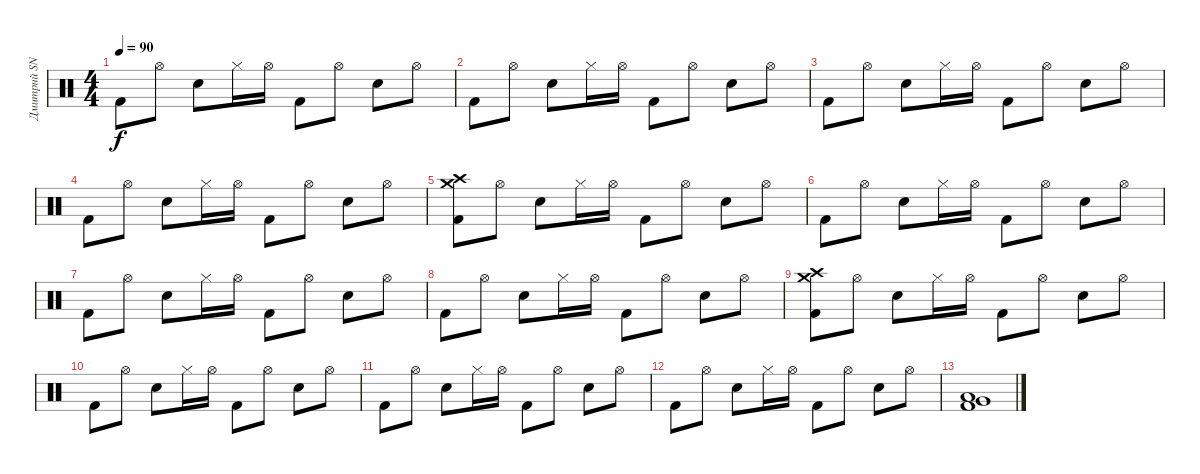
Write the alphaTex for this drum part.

\track ("Дмитрий SNAKE Хакимов" "Дмитрий SN") {instrument percussion}
\staff {score}
\articulation defaults
\ts (4 4)
\tempo 90
\clef neutral
\ks c "Kick (hit) 2".8{dy f} "Hi-Hat (open)".8 "Snare (hit) 2".8 "Hi-Hat (closed)".16 "Hi-Hat (open)".16 "Kick (hit) 2".8 "Hi-Hat (open)".8 "Snare (hit) 2".8 "Hi-Hat (open)".8
|
"Kick (hit) 2".8 "Hi-Hat (open)".8 "Snare (hit) 2".8 "Hi-Hat (closed)".16 "Hi-Hat (open)".16 "Kick (hit) 2".8 "Hi-Hat (open)".8 "Snare (hit) 2".8 "Hi-Hat (open)".8 |
"Kick (hit) 2".8 "Hi-Hat (open)".8 "Snare (hit) 2".8 "Hi-Hat (closed)".16 "Hi-Hat (open)".16 "Kick (hit) 2".8 "Hi-Hat (open)".8 "Snare (hit) 2".8 "Hi-Hat (open)".8 |
"Kick (hit) 2".8 "Hi-Hat (open)".8 "Snare (hit) 2".8 "Hi-Hat (closed)".16 "Hi-Hat (open)".16 "Kick (hit) 2".8 "Hi-Hat (open)".8 "Snare (hit) 2".8 "Hi-Hat (open)".8 |
("Crash high (hit)" "Crash medium (hit)" "Kick (hit) 2").8 "Hi-Hat (open)".8 "Snare (hit) 2".8 "Hi-Hat (closed)".16 "Hi-Hat (open)".16 "Kick (hit) 2".8 "Hi-Hat (open)".8 "Snare (hit) 2".8 "Hi-Hat (open)".8 |
"Kick (hit) 2".8 "Hi-Hat (open)".8 "Snare (hit) 2".8 "Hi-Hat (closed)".16 "Hi-Hat (open)".16 "Kick (hit) 2".8 "Hi-Hat (open)".8 "Snare (hit) 2".8 "Hi-Hat (open)".8 |
"Kick (hit) 2".8 "Hi-Hat (open)".8 "Snare (hit) 2".8 "Hi-Hat (closed)".16 "Hi-Hat (open)".16 "Kick (hit) 2".8 "Hi-Hat (open)".8 "Snare (hit) 2".8 "Hi-Hat (open)".8 |
"Kick (hit) 2".8 "Hi-Hat (open)".8 "Snare (hit) 2".8 "Hi-Hat (closed)".16 "Hi-Hat (open)".16 "Kick (hit) 2".8 "Hi-Hat (open)".8 "Snare (hit) 2".8 "Hi-Hat (open)".8 |
("Crash high (hit)" "Crash medium (hit)" "Kick (hit) 2").8 "Hi-Hat (open)".8 "Snare (hit) 2".8 "Hi-Hat (closed)".16 "Hi-Hat (open)".16 "Kick (hit) 2".8 "Hi-Hat (open)".8 "Snare (hit) 2".8 "Hi-Hat (open)".8 |
"Kick (hit) 2".8 "Hi-Hat (open)".8 "Snare (hit) 2".8 "Hi-Hat (closed)".16 "Hi-Hat (open)".16 "Kick (hit) 2".8 "Hi-Hat (open)".8 "Snare (hit) 2".8 "Hi-Hat (open)".8 |
"Kick (hit) 2".8 "Hi-Hat (open)".8 "Snare (hit) 2".8 "Hi-Hat (closed)".16 "Hi-Hat (open)".16 "Kick (hit) 2".8 "Hi-Hat (open)".8 "Snare (hit) 2".8 "Hi-Hat (open)".8 |
"Kick (hit) 2".8 "Hi-Hat (open)".8 "Snare (hit) 2".8 "Hi-Hat (closed)".16 "Hi-Hat (open)".16 "Kick (hit) 2".8 "Hi-Hat (open)".8 "Snare (hit) 2".8 "Hi-Hat (open)".8 |
("Low Tom (hit)" "Very Low Tom (hit)" "Kick (hit) 2").1
